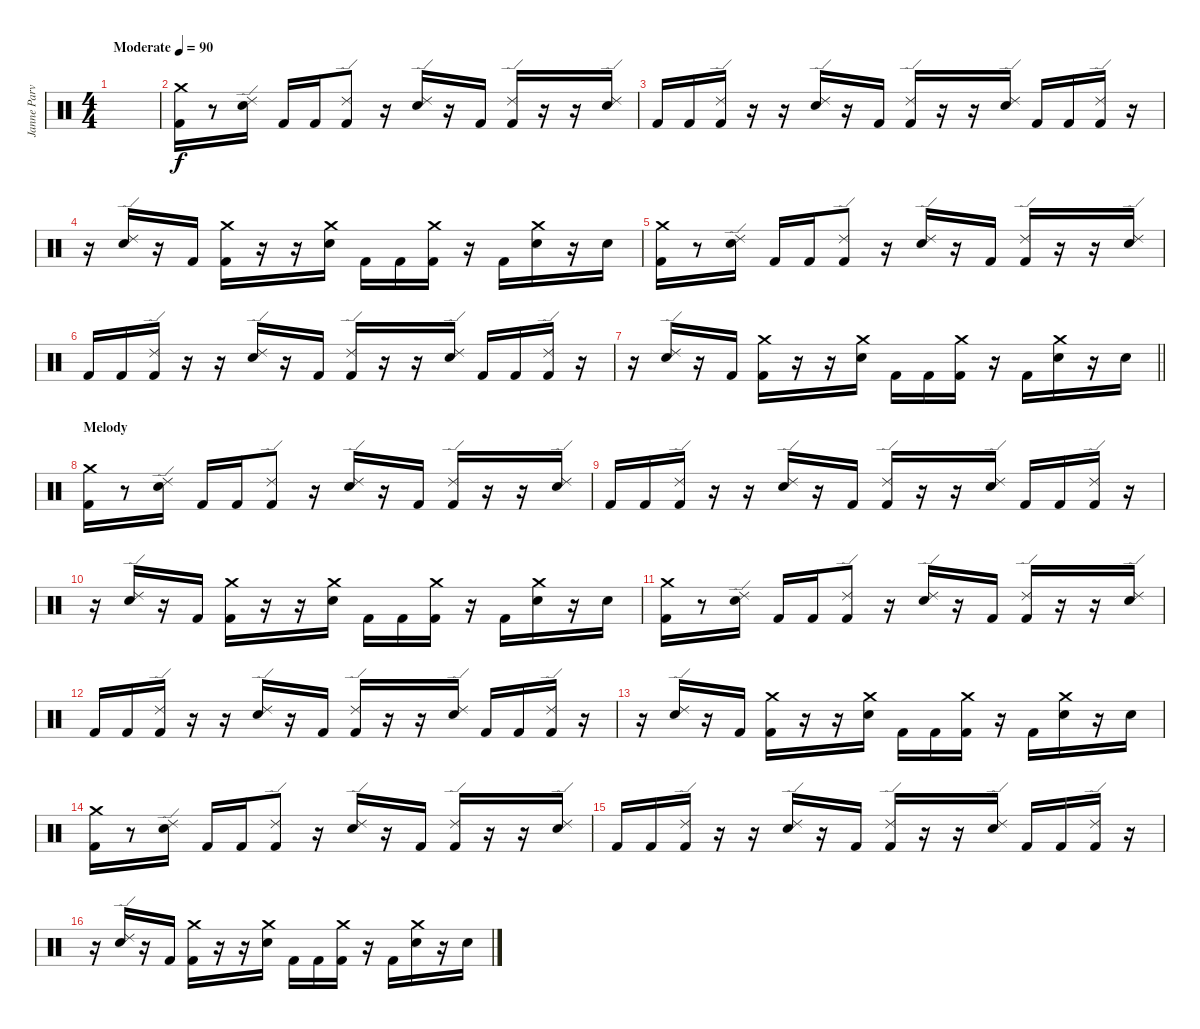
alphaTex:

\track ("Janne Parviainen" "Janne Parv") {instrument percussion}
\staff {score}
\articulation defaults
\ts (4 4)
\tempo (90 "Moderate")
\clef neutral
\ks c
|
("Crash medium (hit)" "Kick (hit) 2").16 r.8 ("Ride (edge) 2" "Snare (hit) 2").16 "Kick (hit) 2".16 "Kick (hit) 2".16 ("Ride (edge) 2" "Kick (hit) 2").8 r.16 ("Ride (edge) 2" "Snare (hit) 2").16 r.16 "Kick (hit) 2".16 ("Ride (edge) 2" "Kick (hit) 2").16 r.16 r.16 ("Ride (edge) 2" "Snare (hit) 2").16 |
"Kick (hit) 2".16 "Kick (hit) 2".16 ("Ride (edge) 2" "Kick (hit) 2").16 r.16 r.16 ("Ride (edge) 2" "Snare (hit) 2").16 r.16 "Kick (hit) 2".16 ("Ride (edge) 2" "Kick (hit) 2").16 r.16 r.16 ("Ride (edge) 2" "Snare (hit) 2").16 "Kick (hit) 2".16 "Kick (hit) 2".16 ("Ride (edge) 2" "Kick (hit) 2").16 r.16 |
r.16 ("Ride (edge) 2" "Snare (hit) 2").16 r.16 "Kick (hit) 2".16 ("Crash medium (hit)" "Kick (hit) 2").16 r.16 r.16 ("Crash medium (hit)" "Snare (hit) 2").16 "Kick (hit) 2".16 "Kick (hit) 2".16 ("Crash medium (hit)" "Kick (hit) 2").16 r.16 "Kick (hit) 2".16 ("Crash medium (hit)" "Snare (hit) 2").16 r.16 "Snare (hit) 2".16 |
("Crash medium (hit)" "Kick (hit) 2").16 r.8 ("Ride (edge) 2" "Snare (hit) 2").16 "Kick (hit) 2".16 "Kick (hit) 2".16 ("Ride (edge) 2" "Kick (hit) 2").8 r.16 ("Ride (edge) 2" "Snare (hit) 2").16 r.16 "Kick (hit) 2".16 ("Ride (edge) 2" "Kick (hit) 2").16 r.16 r.16 ("Ride (edge) 2" "Snare (hit) 2").16 |
"Kick (hit) 2".16 "Kick (hit) 2".16 ("Ride (edge) 2" "Kick (hit) 2").16 r.16 r.16 ("Ride (edge) 2" "Snare (hit) 2").16 r.16 "Kick (hit) 2".16 ("Ride (edge) 2" "Kick (hit) 2").16 r.16 r.16 ("Ride (edge) 2" "Snare (hit) 2").16 "Kick (hit) 2".16 "Kick (hit) 2".16 ("Ride (edge) 2" "Kick (hit) 2").16 r.16 |
\barLineRight lightlight
r.16 ("Ride (edge) 2" "Snare (hit) 2").16 r.16 "Kick (hit) 2".16 ("Crash medium (hit)" "Kick (hit) 2").16 r.16 r.16 ("Crash medium (hit)" "Snare (hit) 2").16 "Kick (hit) 2".16 "Kick (hit) 2".16 ("Crash medium (hit)" "Kick (hit) 2").16 r.16 "Kick (hit) 2".16 ("Crash medium (hit)" "Snare (hit) 2").16 r.16 "Snare (hit) 2".16 |
\section ("" "Melody")
("Crash medium (hit)" "Kick (hit) 2").16 r.8 ("Ride (edge) 2" "Snare (hit) 2").16 "Kick (hit) 2".16 "Kick (hit) 2".16 ("Ride (edge) 2" "Kick (hit) 2").8 r.16 ("Ride (edge) 2" "Snare (hit) 2").16 r.16 "Kick (hit) 2".16 ("Ride (edge) 2" "Kick (hit) 2").16 r.16 r.16 ("Ride (edge) 2" "Snare (hit) 2").16 |
"Kick (hit) 2".16 "Kick (hit) 2".16 ("Ride (edge) 2" "Kick (hit) 2").16 r.16 r.16 ("Ride (edge) 2" "Snare (hit) 2").16 r.16 "Kick (hit) 2".16 ("Ride (edge) 2" "Kick (hit) 2").16 r.16 r.16 ("Ride (edge) 2" "Snare (hit) 2").16 "Kick (hit) 2".16 "Kick (hit) 2".16 ("Ride (edge) 2" "Kick (hit) 2").16 r.16 |
r.16 ("Ride (edge) 2" "Snare (hit) 2").16 r.16 "Kick (hit) 2".16 ("Crash medium (hit)" "Kick (hit) 2").16 r.16 r.16 ("Crash medium (hit)" "Snare (hit) 2").16 "Kick (hit) 2".16 "Kick (hit) 2".16 ("Crash medium (hit)" "Kick (hit) 2").16 r.16 "Kick (hit) 2".16 ("Crash medium (hit)" "Snare (hit) 2").16 r.16 "Snare (hit) 2".16 |
("Crash medium (hit)" "Kick (hit) 2").16 r.8 ("Ride (edge) 2" "Snare (hit) 2").16 "Kick (hit) 2".16 "Kick (hit) 2".16 ("Ride (edge) 2" "Kick (hit) 2").8 r.16 ("Ride (edge) 2" "Snare (hit) 2").16 r.16 "Kick (hit) 2".16 ("Ride (edge) 2" "Kick (hit) 2").16 r.16 r.16 ("Ride (edge) 2" "Snare (hit) 2").16 |
"Kick (hit) 2".16 "Kick (hit) 2".16 ("Ride (edge) 2" "Kick (hit) 2").16 r.16 r.16 ("Ride (edge) 2" "Snare (hit) 2").16 r.16 "Kick (hit) 2".16 ("Ride (edge) 2" "Kick (hit) 2").16 r.16 r.16 ("Ride (edge) 2" "Snare (hit) 2").16 "Kick (hit) 2".16 "Kick (hit) 2".16 ("Ride (edge) 2" "Kick (hit) 2").16 r.16 |
r.16 ("Ride (edge) 2" "Snare (hit) 2").16 r.16 "Kick (hit) 2".16 ("Crash medium (hit)" "Kick (hit) 2").16 r.16 r.16 ("Crash medium (hit)" "Snare (hit) 2").16 "Kick (hit) 2".16 "Kick (hit) 2".16 ("Crash medium (hit)" "Kick (hit) 2").16 r.16 "Kick (hit) 2".16 ("Crash medium (hit)" "Snare (hit) 2").16 r.16 "Snare (hit) 2".16 |
("Crash medium (hit)" "Kick (hit) 2").16 r.8 ("Ride (edge) 2" "Snare (hit) 2").16 "Kick (hit) 2".16 "Kick (hit) 2".16 ("Ride (edge) 2" "Kick (hit) 2").8 r.16 ("Ride (edge) 2" "Snare (hit) 2").16 r.16 "Kick (hit) 2".16 ("Ride (edge) 2" "Kick (hit) 2").16 r.16 r.16 ("Ride (edge) 2" "Snare (hit) 2").16 |
"Kick (hit) 2".16 "Kick (hit) 2".16 ("Ride (edge) 2" "Kick (hit) 2").16 r.16 r.16 ("Ride (edge) 2" "Snare (hit) 2").16 r.16 "Kick (hit) 2".16 ("Ride (edge) 2" "Kick (hit) 2").16 r.16 r.16 ("Ride (edge) 2" "Snare (hit) 2").16 "Kick (hit) 2".16 "Kick (hit) 2".16 ("Ride (edge) 2" "Kick (hit) 2").16 r.16 |
r.16 ("Ride (edge) 2" "Snare (hit) 2").16 r.16 "Kick (hit) 2".16 ("Crash medium (hit)" "Kick (hit) 2").16 r.16 r.16 ("Crash medium (hit)" "Snare (hit) 2").16 "Kick (hit) 2".16 "Kick (hit) 2".16 ("Crash medium (hit)" "Kick (hit) 2").16 r.16 "Kick (hit) 2".16 ("Crash medium (hit)" "Snare (hit) 2").16 r.16 "Snare (hit) 2".16
